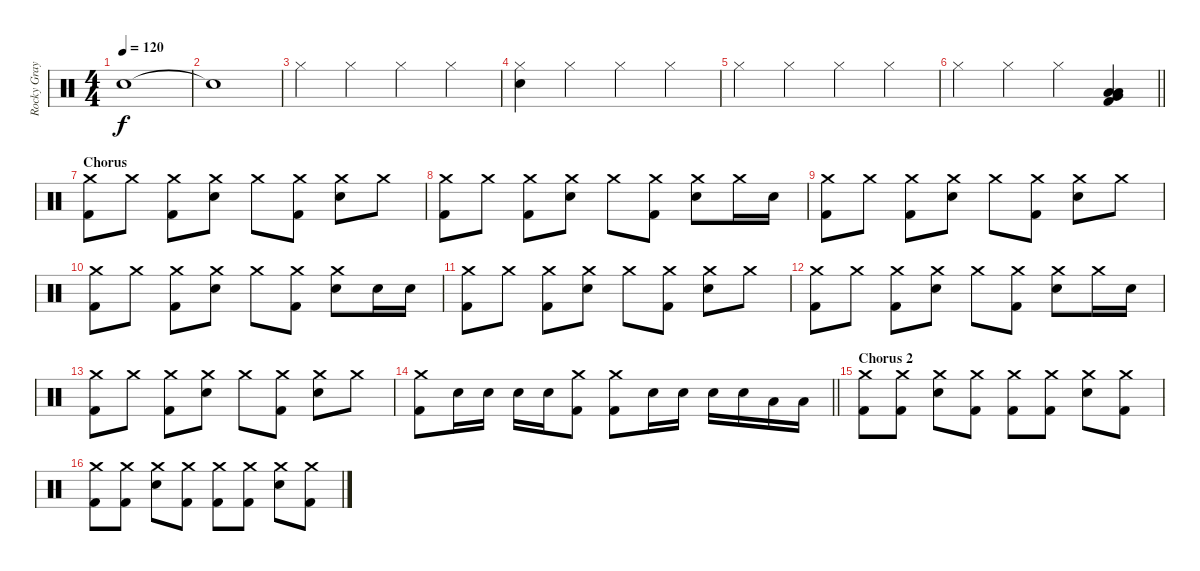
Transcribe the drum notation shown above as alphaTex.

\track ("Rocky Gray" "Rocky Gray") {instrument percussion}
\staff {score}
\articulation defaults
\ts (4 4)
\tempo 120
\clef neutral
\ks c "Snare (hit)"{t}.1{dy f}
|
"Snare (hit)"{t}.1 |
"Hi-Hat (closed)".4 "Hi-Hat (closed)".4 "Hi-Hat (closed)".4 "Hi-Hat (closed)".4 |
("Hi-Hat (closed)" "Snare (hit)").4 "Hi-Hat (closed)".4 "Hi-Hat (closed)".4 "Hi-Hat (closed)".4 |
"Hi-Hat (closed)".4 "Hi-Hat (closed)".4 "Hi-Hat (closed)".4 "Hi-Hat (closed)".4 |
\barLineRight lightlight "Hi-Hat (closed)".4 "Hi-Hat (closed)".4 "Hi-Hat (closed)".4
("Low Tom (hit)" "Very Low Tom (hit)" "Low Floor Tom (hit)" "Kick (hit) 2").4 |
\section ("" "Chorus")
("Crash medium (hit)" "Kick (hit) 2").8 "Crash medium (hit)".8 ("Crash medium (hit)" "Kick (hit) 2").8 ("Crash medium (hit)" "Electric Snare (hit)").8 "Crash medium (hit)".8 ("Crash medium (hit)" "Kick (hit) 2").8 ("Crash medium (hit)" "Electric Snare (hit)").8 "Crash medium (hit)".8 |
("Crash medium (hit)" "Kick (hit) 2").8 "Crash medium (hit)".8 ("Crash medium (hit)" "Kick (hit) 2").8 ("Crash medium (hit)" "Electric Snare (hit)").8 "Crash medium (hit)".8 ("Crash medium (hit)" "Kick (hit) 2").8 ("Crash medium (hit)" "Electric Snare (hit)").8 "Crash medium (hit)".16 "Electric Snare (hit)".16 |
("Crash medium (hit)" "Kick (hit) 2").8 "Crash medium (hit)".8 ("Crash medium (hit)" "Kick (hit) 2").8 ("Crash medium (hit)" "Electric Snare (hit)").8 "Crash medium (hit)".8 ("Crash medium (hit)" "Kick (hit) 2").8 ("Crash medium (hit)" "Electric Snare (hit)").8 "Crash medium (hit)".8 |
("Crash medium (hit)" "Kick (hit) 2").8 "Crash medium (hit)".8 ("Crash medium (hit)" "Kick (hit) 2").8 ("Crash medium (hit)" "Electric Snare (hit)").8 "Crash medium (hit)".8 ("Crash medium (hit)" "Kick (hit) 2").8 ("Crash medium (hit)" "Electric Snare (hit)").8 "Electric Snare (hit)".16 "Electric Snare (hit)".16 |
("Crash medium (hit)" "Kick (hit) 2").8 "Crash medium (hit)".8 ("Crash medium (hit)" "Kick (hit) 2").8 ("Crash medium (hit)" "Electric Snare (hit)").8 "Crash medium (hit)".8 ("Crash medium (hit)" "Kick (hit) 2").8 ("Crash medium (hit)" "Electric Snare (hit)").8 "Crash medium (hit)".8 |
("Crash medium (hit)" "Kick (hit) 2").8 "Crash medium (hit)".8 ("Crash medium (hit)" "Kick (hit) 2").8 ("Crash medium (hit)" "Electric Snare (hit)").8 "Crash medium (hit)".8 ("Crash medium (hit)" "Kick (hit) 2").8 ("Crash medium (hit)" "Electric Snare (hit)").8 "Crash medium (hit)".16 "Electric Snare (hit)".16 |
("Crash medium (hit)" "Kick (hit) 2").8 "Crash medium (hit)".8 ("Crash medium (hit)" "Kick (hit) 2").8 ("Crash medium (hit)" "Electric Snare (hit)").8 "Crash medium (hit)".8 ("Crash medium (hit)" "Kick (hit) 2").8 ("Crash medium (hit)" "Electric Snare (hit)").8 "Crash medium (hit)".8 |
\barLineRight lightlight
("Crash medium (hit)" "Kick (hit) 2").8 "Electric Snare (hit)".16 "Electric Snare (hit)".16 "Electric Snare (hit)".16 "Electric Snare (hit)".16 ("Crash medium (hit)" "Kick (hit) 2").8 ("Crash medium (hit)" "Kick (hit) 2").8 "Electric Snare (hit)".16 "Electric Snare (hit)".16 "Electric Snare (hit)".16 "Electric Snare (hit)".16 "Low Floor Tom (hit)".16 "Low Floor Tom (hit)".16 |
\section ("" "Chorus 2")
("Crash medium (hit)" "Kick (hit) 2").8 ("Crash medium (hit)" "Kick (hit) 2").8 ("Crash medium (hit)" "Electric Snare (hit)").8 ("Crash medium (hit)" "Kick (hit) 2").8 ("Crash medium (hit)" "Kick (hit) 2").8 ("Crash medium (hit)" "Kick (hit) 2").8 ("Crash medium (hit)" "Electric Snare (hit)").8 ("Crash medium (hit)" "Kick (hit) 2").8 |
("Crash medium (hit)" "Kick (hit) 2").8 ("Crash medium (hit)" "Kick (hit) 2").8 ("Crash medium (hit)" "Electric Snare (hit)").8 ("Crash medium (hit)" "Kick (hit) 2").8 ("Crash medium (hit)" "Kick (hit) 2").8 ("Crash medium (hit)" "Kick (hit) 2").8 ("Crash medium (hit)" "Electric Snare (hit)").8 ("Crash medium (hit)" "Kick (hit) 2").8
